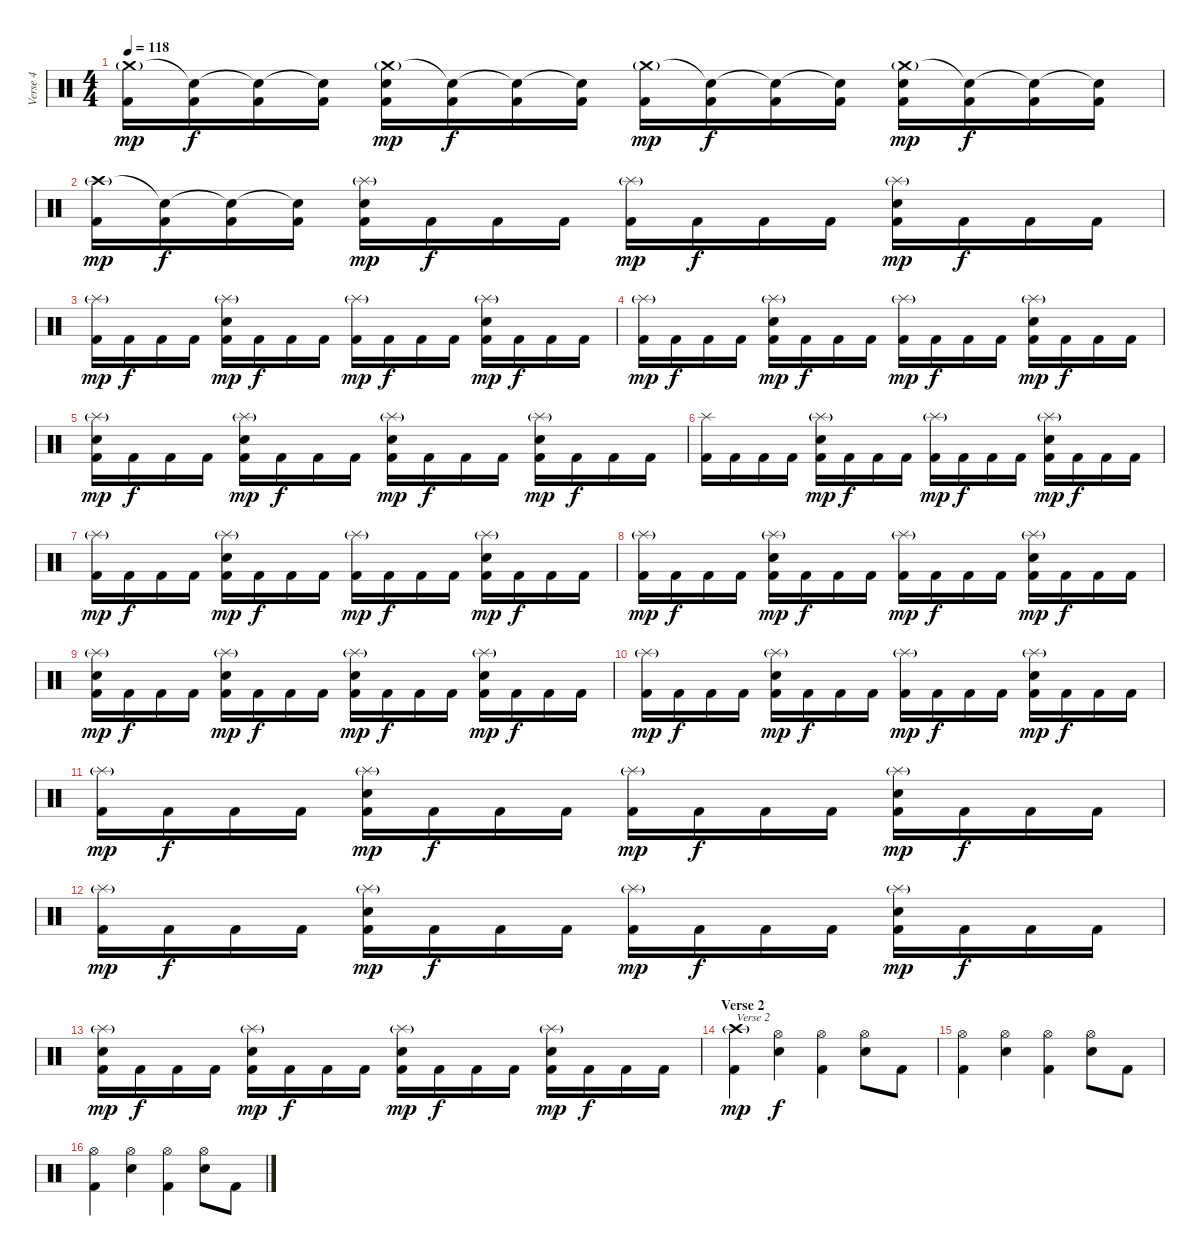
\track ("Verse 4" "Verse 4") {instrument percussion}
\staff {score}
\articulation defaults
\ts (4 4)
\tempo 118
\clef neutral
\ks c
("Crash medium (hit)"{g} "Kick (hit) 2").16{dy mp} ("Snare (hit)"{t} "Kick (hit) 2").16{dy f} ("Snare (hit)"{t} "Kick (hit) 2").16 ("Snare (hit)"{t} "Kick (hit) 2").16 ("Crash medium (hit)"{g} "Electric Snare (hit)" "Kick (hit) 2").16{dy mp} ("Snare (hit)"{t} "Kick (hit) 2").16{dy f} ("Snare (hit)"{t} "Kick (hit) 2").16 ("Snare (hit)"{t} "Kick (hit) 2").16 ("Crash medium (hit)"{g} "Kick (hit) 2").16{dy mp} ("Snare (hit)"{t} "Kick (hit) 2").16{dy f} ("Snare (hit)"{t} "Kick (hit) 2").16 ("Snare (hit)"{t} "Kick (hit) 2").16 ("Crash medium (hit)"{g} "Electric Snare (hit)" "Kick (hit) 2").16{dy mp} ("Snare (hit)"{t} "Kick (hit) 2").16{dy f} ("Snare (hit)"{t} "Kick (hit) 2").16 ("Snare (hit)"{t} "Kick (hit) 2").16 |
("Crash high (hit)"{g} "Kick (hit) 2").16{dy mp} ("Snare (hit)"{t} "Kick (hit) 2").16{dy f} ("Snare (hit)"{t} "Kick (hit) 2").16 ("Snare (hit)"{t} "Kick (hit) 2").16 ("Splash (hit)"{g} "Electric Snare (hit)" "Kick (hit) 2").16{dy mp} "Kick (hit) 2".16{dy f} "Kick (hit) 2".16 "Kick (hit) 2".16 ("Splash (hit)"{g} "Kick (hit) 2").16{dy mp} "Kick (hit) 2".16{dy f} "Kick (hit) 2".16 "Kick (hit) 2".16 ("Splash (hit)"{g} "Electric Snare (hit)" "Kick (hit) 2").16{dy mp} "Kick (hit) 2".16{dy f} "Kick (hit) 2".16 "Kick (hit) 2".16 |
("Splash (hit)"{g} "Kick (hit) 2").16{dy mp} "Kick (hit) 2".16{dy f} "Kick (hit) 2".16 "Kick (hit) 2".16 ("Splash (hit)"{g} "Electric Snare (hit)" "Kick (hit) 2").16{dy mp} "Kick (hit) 2".16{dy f} "Kick (hit) 2".16 "Kick (hit) 2".16 ("Splash (hit)"{g} "Kick (hit) 2").16{dy mp} "Kick (hit) 2".16{dy f} "Kick (hit) 2".16 "Kick (hit) 2".16 ("Splash (hit)"{g} "Electric Snare (hit)" "Kick (hit) 2").16{dy mp} "Kick (hit) 2".16{dy f} "Kick (hit) 2".16 "Kick (hit) 2".16 |
("Splash (hit)"{g} "Kick (hit) 2").16{dy mp} "Kick (hit) 2".16{dy f} "Kick (hit) 2".16 "Kick (hit) 2".16 ("Splash (hit)"{g} "Electric Snare (hit)" "Kick (hit) 2").16{dy mp} "Kick (hit) 2".16{dy f} "Kick (hit) 2".16 "Kick (hit) 2".16 ("Splash (hit)"{g} "Kick (hit) 2").16{dy mp} "Kick (hit) 2".16{dy f} "Kick (hit) 2".16 "Kick (hit) 2".16 ("Splash (hit)"{g} "Electric Snare (hit)" "Kick (hit) 2").16{dy mp} "Kick (hit) 2".16{dy f} "Kick (hit) 2".16 "Kick (hit) 2".16 |
("Splash (hit)"{g} "Electric Snare (hit)" "Kick (hit) 2").16{dy mp} "Kick (hit) 2".16{dy f} "Kick (hit) 2".16 "Kick (hit) 2".16 ("Splash (hit)"{g} "Electric Snare (hit)" "Kick (hit) 2").16{dy mp} "Kick (hit) 2".16{dy f} "Kick (hit) 2".16 "Kick (hit) 2".16 ("Splash (hit)"{g} "Electric Snare (hit)" "Kick (hit) 2").16{dy mp} "Kick (hit) 2".16{dy f} "Kick (hit) 2".16 "Kick (hit) 2".16 ("Splash (hit)"{g} "Electric Snare (hit)" "Kick (hit) 2").16{dy mp} "Kick (hit) 2".16{dy f} "Kick (hit) 2".16 "Kick (hit) 2".16 |
("Splash (hit)" "Kick (hit) 2").16 "Kick (hit) 2".16 "Kick (hit) 2".16 "Kick (hit) 2".16 ("Splash (hit)"{g} "Electric Snare (hit)" "Kick (hit) 2").16{dy mp} "Kick (hit) 2".16{dy f} "Kick (hit) 2".16 "Kick (hit) 2".16 ("Splash (hit)"{g} "Kick (hit) 2").16{dy mp} "Kick (hit) 2".16{dy f} "Kick (hit) 2".16 "Kick (hit) 2".16 ("Splash (hit)"{g} "Electric Snare (hit)" "Kick (hit) 2").16{dy mp} "Kick (hit) 2".16{dy f} "Kick (hit) 2".16 "Kick (hit) 2".16 |
("Splash (hit)"{g} "Kick (hit) 2").16{dy mp} "Kick (hit) 2".16{dy f} "Kick (hit) 2".16 "Kick (hit) 2".16 ("Splash (hit)"{g} "Electric Snare (hit)" "Kick (hit) 2").16{dy mp} "Kick (hit) 2".16{dy f} "Kick (hit) 2".16 "Kick (hit) 2".16 ("Splash (hit)"{g} "Kick (hit) 2").16{dy mp} "Kick (hit) 2".16{dy f} "Kick (hit) 2".16 "Kick (hit) 2".16 ("Splash (hit)"{g} "Electric Snare (hit)" "Kick (hit) 2").16{dy mp} "Kick (hit) 2".16{dy f} "Kick (hit) 2".16 "Kick (hit) 2".16 |
("Splash (hit)"{g} "Kick (hit) 2").16{dy mp} "Kick (hit) 2".16{dy f} "Kick (hit) 2".16 "Kick (hit) 2".16 ("Splash (hit)"{g} "Electric Snare (hit)" "Kick (hit) 2").16{dy mp} "Kick (hit) 2".16{dy f} "Kick (hit) 2".16 "Kick (hit) 2".16 ("Splash (hit)"{g} "Kick (hit) 2").16{dy mp} "Kick (hit) 2".16{dy f} "Kick (hit) 2".16 "Kick (hit) 2".16 ("Splash (hit)"{g} "Electric Snare (hit)" "Kick (hit) 2").16{dy mp} "Kick (hit) 2".16{dy f} "Kick (hit) 2".16 "Kick (hit) 2".16 |
("Splash (hit)"{g} "Electric Snare (hit)" "Kick (hit) 2").16{dy mp} "Kick (hit) 2".16{dy f} "Kick (hit) 2".16 "Kick (hit) 2".16 ("Splash (hit)"{g} "Electric Snare (hit)" "Kick (hit) 2").16{dy mp} "Kick (hit) 2".16{dy f} "Kick (hit) 2".16 "Kick (hit) 2".16 ("Splash (hit)"{g} "Electric Snare (hit)" "Kick (hit) 2").16{dy mp} "Kick (hit) 2".16{dy f} "Kick (hit) 2".16 "Kick (hit) 2".16 ("Splash (hit)"{g} "Electric Snare (hit)" "Kick (hit) 2").16{dy mp} "Kick (hit) 2".16{dy f} "Kick (hit) 2".16 "Kick (hit) 2".16 |
("Splash (hit)"{g} "Kick (hit) 2").16{dy mp} "Kick (hit) 2".16{dy f} "Kick (hit) 2".16 "Kick (hit) 2".16 ("Splash (hit)"{g} "Electric Snare (hit)" "Kick (hit) 2").16{dy mp} "Kick (hit) 2".16{dy f} "Kick (hit) 2".16 "Kick (hit) 2".16 ("Splash (hit)"{g} "Kick (hit) 2").16{dy mp} "Kick (hit) 2".16{dy f} "Kick (hit) 2".16 "Kick (hit) 2".16 ("Splash (hit)"{g} "Electric Snare (hit)" "Kick (hit) 2").16{dy mp} "Kick (hit) 2".16{dy f} "Kick (hit) 2".16 "Kick (hit) 2".16 |
("Splash (hit)"{g} "Kick (hit) 2").16{dy mp} "Kick (hit) 2".16{dy f} "Kick (hit) 2".16 "Kick (hit) 2".16 ("Splash (hit)"{g} "Electric Snare (hit)" "Kick (hit) 2").16{dy mp} "Kick (hit) 2".16{dy f} "Kick (hit) 2".16 "Kick (hit) 2".16 ("Splash (hit)"{g} "Kick (hit) 2").16{dy mp} "Kick (hit) 2".16{dy f} "Kick (hit) 2".16 "Kick (hit) 2".16 ("Splash (hit)"{g} "Electric Snare (hit)" "Kick (hit) 2").16{dy mp} "Kick (hit) 2".16{dy f} "Kick (hit) 2".16 "Kick (hit) 2".16 |
("Splash (hit)"{g} "Kick (hit) 2").16{dy mp} "Kick (hit) 2".16{dy f} "Kick (hit) 2".16 "Kick (hit) 2".16 ("Splash (hit)"{g} "Electric Snare (hit)" "Kick (hit) 2").16{dy mp} "Kick (hit) 2".16{dy f} "Kick (hit) 2".16 "Kick (hit) 2".16 ("Splash (hit)"{g} "Kick (hit) 2").16{dy mp} "Kick (hit) 2".16{dy f} "Kick (hit) 2".16 "Kick (hit) 2".16 ("Splash (hit)"{g} "Electric Snare (hit)" "Kick (hit) 2").16{dy mp} "Kick (hit) 2".16{dy f} "Kick (hit) 2".16 "Kick (hit) 2".16 |
("Splash (hit)"{g} "Electric Snare (hit)" "Kick (hit) 2").16{dy mp} "Kick (hit) 2".16{dy f} "Kick (hit) 2".16 "Kick (hit) 2".16 ("Splash (hit)"{g} "Electric Snare (hit)" "Kick (hit) 2").16{dy mp} "Kick (hit) 2".16{dy f} "Kick (hit) 2".16 "Kick (hit) 2".16 ("Splash (hit)"{g} "Electric Snare (hit)" "Kick (hit) 2").16{dy mp} "Kick (hit) 2".16{dy f} "Kick (hit) 2".16 "Kick (hit) 2".16 ("Splash (hit)"{g} "Electric Snare (hit)" "Kick (hit) 2").16{dy mp} "Kick (hit) 2".16{dy f} "Kick (hit) 2".16 "Kick (hit) 2".16 |
\section ("" "Verse 2")
("Crash high (hit)"{g} "Kick (hit) 2").4{txt "Verse 2" dy mp} ("Hi-Hat (open)" "Electric Snare (hit)").4{dy f} ("Hi-Hat (open)" "Kick (hit) 2").4 ("Hi-Hat (open)" "Electric Snare (hit)").8 "Kick (hit) 2".8 |
("Hi-Hat (open)" "Kick (hit) 2").4 ("Hi-Hat (open)" "Electric Snare (hit)").4 ("Hi-Hat (open)" "Kick (hit) 2").4 ("Hi-Hat (open)" "Electric Snare (hit)").8 "Kick (hit) 2".8 |
("Hi-Hat (open)" "Kick (hit) 2").4 ("Hi-Hat (open)" "Electric Snare (hit)").4 ("Hi-Hat (open)" "Kick (hit) 2").4 ("Hi-Hat (open)" "Electric Snare (hit)").8 "Kick (hit) 2".8
